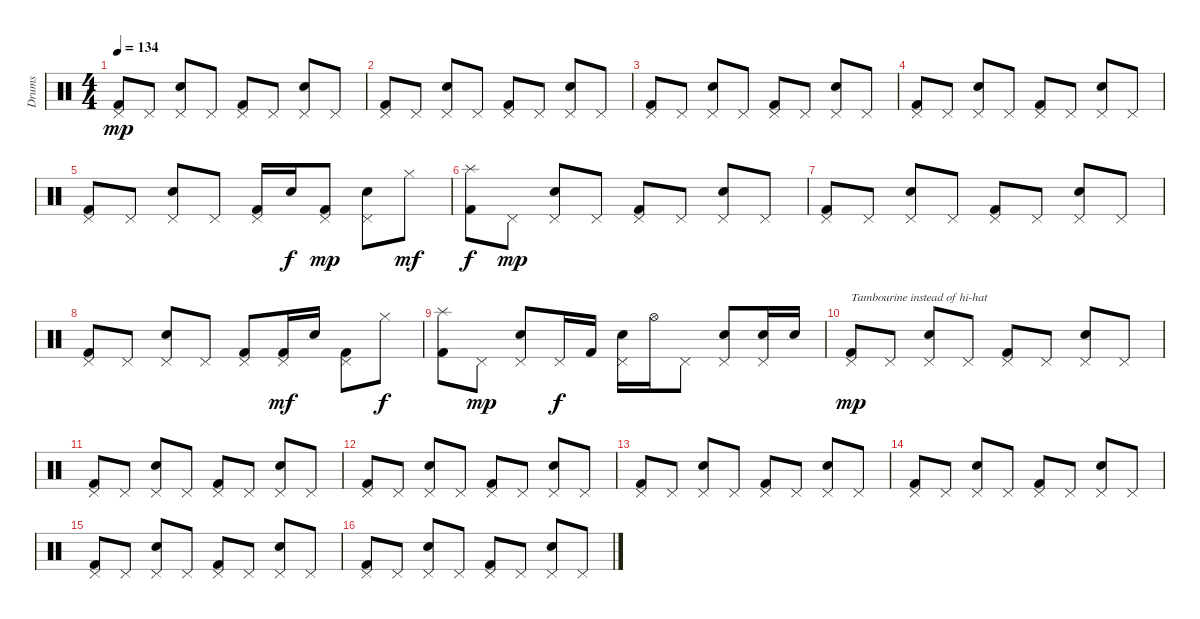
\track ("Drums" "Drums") {instrument percussion}
\staff {score}
\articulation defaults
\ts (4 4)
\tempo 134
\clef neutral
\ks c
("Pedal Hi-Hat (hit)" "Kick (hit) 2").8{dy mp} "Pedal Hi-Hat (hit)".8 ("Pedal Hi-Hat (hit)" "Electric Snare (hit)").8 "Pedal Hi-Hat (hit)".8 ("Pedal Hi-Hat (hit)" "Kick (hit) 2").8 "Pedal Hi-Hat (hit)".8 ("Pedal Hi-Hat (hit)" "Electric Snare (hit)").8 "Pedal Hi-Hat (hit)".8 |
("Pedal Hi-Hat (hit)" "Kick (hit) 2").8 "Pedal Hi-Hat (hit)".8 ("Pedal Hi-Hat (hit)" "Electric Snare (hit)").8 "Pedal Hi-Hat (hit)".8 ("Pedal Hi-Hat (hit)" "Kick (hit) 2").8 "Pedal Hi-Hat (hit)".8 ("Pedal Hi-Hat (hit)" "Electric Snare (hit)").8 "Pedal Hi-Hat (hit)".8 |
("Pedal Hi-Hat (hit)" "Kick (hit) 2").8 "Pedal Hi-Hat (hit)".8 ("Pedal Hi-Hat (hit)" "Electric Snare (hit)").8 "Pedal Hi-Hat (hit)".8 ("Pedal Hi-Hat (hit)" "Kick (hit) 2").8 "Pedal Hi-Hat (hit)".8 ("Pedal Hi-Hat (hit)" "Electric Snare (hit)").8 "Pedal Hi-Hat (hit)".8 |
("Pedal Hi-Hat (hit)" "Kick (hit) 2").8 "Pedal Hi-Hat (hit)".8 ("Pedal Hi-Hat (hit)" "Electric Snare (hit)").8 "Pedal Hi-Hat (hit)".8 ("Pedal Hi-Hat (hit)" "Kick (hit) 2").8 "Pedal Hi-Hat (hit)".8 ("Pedal Hi-Hat (hit)" "Electric Snare (hit)").8 "Pedal Hi-Hat (hit)".8 |
("Pedal Hi-Hat (hit)" "Kick (hit) 2").8 "Pedal Hi-Hat (hit)".8 ("Pedal Hi-Hat (hit)" "Electric Snare (hit)").8 "Pedal Hi-Hat (hit)".8 ("Pedal Hi-Hat (hit)" "Kick (hit) 2").16 "Electric Snare (hit)".16{dy f} ("Pedal Hi-Hat (hit)" "Kick (hit) 2").8{dy mp} ("Pedal Hi-Hat (hit)" "Electric Snare (hit)").8 "Hi-Hat (closed)".8{dy mf} |
("Splash (hit)" "Kick (hit) 2").8{dy f} "Pedal Hi-Hat (hit)".8{dy mp} ("Pedal Hi-Hat (hit)" "Electric Snare (hit)").8 "Pedal Hi-Hat (hit)".8 ("Pedal Hi-Hat (hit)" "Kick (hit) 2").8 "Pedal Hi-Hat (hit)".8 ("Pedal Hi-Hat (hit)" "Electric Snare (hit)").8 "Pedal Hi-Hat (hit)".8 |
("Pedal Hi-Hat (hit)" "Kick (hit) 2").8 "Pedal Hi-Hat (hit)".8 ("Pedal Hi-Hat (hit)" "Electric Snare (hit)").8 "Pedal Hi-Hat (hit)".8 ("Pedal Hi-Hat (hit)" "Kick (hit) 2").8 "Pedal Hi-Hat (hit)".8 ("Pedal Hi-Hat (hit)" "Electric Snare (hit)").8 "Pedal Hi-Hat (hit)".8 |
("Pedal Hi-Hat (hit)" "Kick (hit) 2").8 "Pedal Hi-Hat (hit)".8 ("Pedal Hi-Hat (hit)" "Electric Snare (hit)").8 "Pedal Hi-Hat (hit)".8 ("Pedal Hi-Hat (hit)" "Kick (hit) 2").8 ("Pedal Hi-Hat (hit)" "Kick (hit) 2").16{dy mf} "Electric Snare (hit)".16 ("Pedal Hi-Hat (hit)" "Kick (hit) 2").8 "Hi-Hat (closed)".8{dy f} |
("Splash (hit)" "Kick (hit) 2").8 "Pedal Hi-Hat (hit)".8{dy mp} ("Pedal Hi-Hat (hit)" "Electric Snare (hit)").8 "Pedal Hi-Hat (hit)".16{dy f} "Kick (hit) 2".16 ("Pedal Hi-Hat (hit)" "Electric Snare (hit)").16 "Hi-Hat (open)".16 "Pedal Hi-Hat (hit)".8 ("Pedal Hi-Hat (hit)" "Electric Snare (hit)").8 ("Pedal Hi-Hat (hit)" "Electric Snare (hit)").16 "Electric Snare (hit)".16 |
("Pedal Hi-Hat (hit)" "Kick (hit) 2").8{txt "Tambourine instead of hi-hat" dy mp} "Pedal Hi-Hat (hit)".8 ("Pedal Hi-Hat (hit)" "Electric Snare (hit)").8 "Pedal Hi-Hat (hit)".8 ("Pedal Hi-Hat (hit)" "Kick (hit) 2").8 "Pedal Hi-Hat (hit)".8 ("Pedal Hi-Hat (hit)" "Electric Snare (hit)").8 "Pedal Hi-Hat (hit)".8 |
("Pedal Hi-Hat (hit)" "Kick (hit) 2").8 "Pedal Hi-Hat (hit)".8 ("Pedal Hi-Hat (hit)" "Electric Snare (hit)").8 "Pedal Hi-Hat (hit)".8 ("Pedal Hi-Hat (hit)" "Kick (hit) 2").8 "Pedal Hi-Hat (hit)".8 ("Pedal Hi-Hat (hit)" "Electric Snare (hit)").8 "Pedal Hi-Hat (hit)".8 |
("Pedal Hi-Hat (hit)" "Kick (hit) 2").8 "Pedal Hi-Hat (hit)".8 ("Pedal Hi-Hat (hit)" "Electric Snare (hit)").8 "Pedal Hi-Hat (hit)".8 ("Pedal Hi-Hat (hit)" "Kick (hit) 2").8 "Pedal Hi-Hat (hit)".8 ("Pedal Hi-Hat (hit)" "Electric Snare (hit)").8 "Pedal Hi-Hat (hit)".8 |
("Pedal Hi-Hat (hit)" "Kick (hit) 2").8 "Pedal Hi-Hat (hit)".8 ("Pedal Hi-Hat (hit)" "Electric Snare (hit)").8 "Pedal Hi-Hat (hit)".8 ("Pedal Hi-Hat (hit)" "Kick (hit) 2").8 "Pedal Hi-Hat (hit)".8 ("Pedal Hi-Hat (hit)" "Electric Snare (hit)").8 "Pedal Hi-Hat (hit)".8 |
("Pedal Hi-Hat (hit)" "Kick (hit) 2").8 "Pedal Hi-Hat (hit)".8 ("Pedal Hi-Hat (hit)" "Electric Snare (hit)").8 "Pedal Hi-Hat (hit)".8 ("Pedal Hi-Hat (hit)" "Kick (hit) 2").8 "Pedal Hi-Hat (hit)".8 ("Pedal Hi-Hat (hit)" "Electric Snare (hit)").8 "Pedal Hi-Hat (hit)".8 |
("Pedal Hi-Hat (hit)" "Kick (hit) 2").8 "Pedal Hi-Hat (hit)".8 ("Pedal Hi-Hat (hit)" "Electric Snare (hit)").8 "Pedal Hi-Hat (hit)".8 ("Pedal Hi-Hat (hit)" "Kick (hit) 2").8 "Pedal Hi-Hat (hit)".8 ("Pedal Hi-Hat (hit)" "Electric Snare (hit)").8 "Pedal Hi-Hat (hit)".8 |
("Pedal Hi-Hat (hit)" "Kick (hit) 2").8 "Pedal Hi-Hat (hit)".8 ("Pedal Hi-Hat (hit)" "Electric Snare (hit)").8 "Pedal Hi-Hat (hit)".8 ("Pedal Hi-Hat (hit)" "Kick (hit) 2").8 "Pedal Hi-Hat (hit)".8 ("Pedal Hi-Hat (hit)" "Electric Snare (hit)").8 "Pedal Hi-Hat (hit)".8
